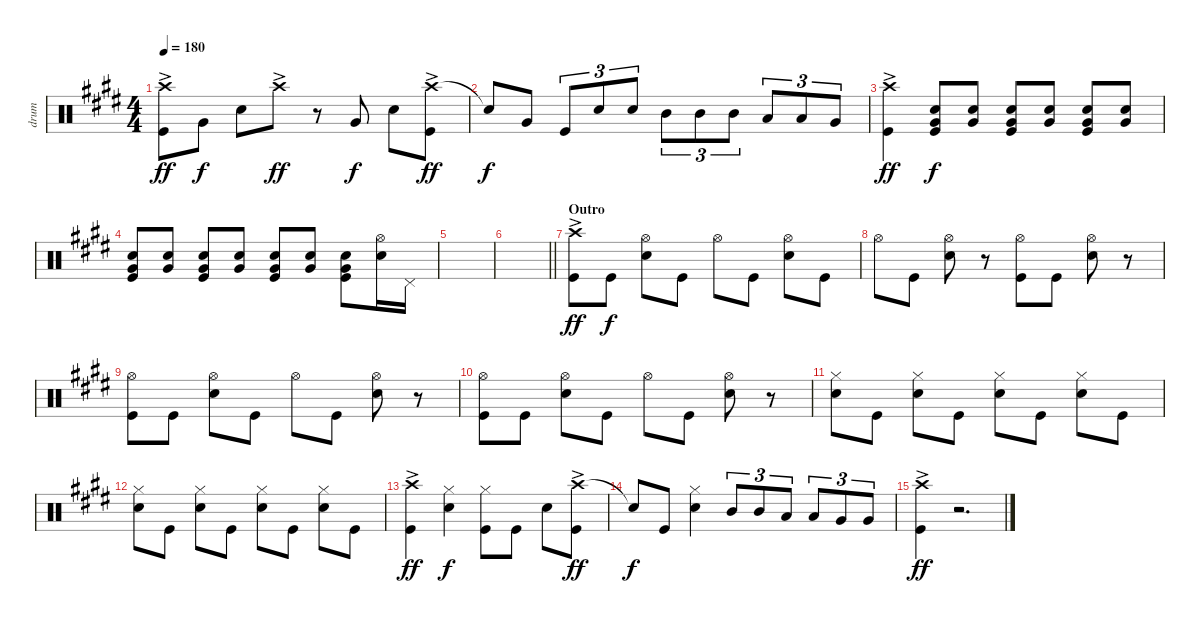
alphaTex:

\track ("drum" "drum") {instrument percussion}
\staff {score}
\articulation defaults
\ts (4 4)
\tempo 180
\clef neutral
\ks e
("Crash high (hit)"{ac} "Kick (hit)").8{dy ff} "Very Low Tom (hit)".8{dy f} "Snare (hit) 2".8 "Crash high (hit)"{ac}.8{dy ff} r.8 "Very Low Tom (hit)".8{dy f} "Snare (hit) 2".8 ("Crash high (hit)"{ac} "Kick (hit)").8{dy ff} |
"Snare (hit)"{t}.8{dy f} "Very Low Tom (hit)".8 "Kick (hit)".8{tu (3 2)} "Snare (hit) 2".8{tu (3 2)} "Snare (hit) 2".8{tu (3 2)} "Mid Tom (hit)".8{tu (3 2)} "Mid Tom (hit)".8{tu (3 2)} "Mid Tom (hit)".8{tu (3 2)} "Low Tom (hit)".8{tu (3 2)} "Low Tom (hit)".8{tu (3 2)} "Very Low Tom (hit)".8{tu (3 2)} |
("Crash high (hit)"{ac} "Kick (hit)").4{dy ff} ("Snare (hit) 2" "Very Low Tom (hit)" "Kick (hit)").8{dy f volume 8} ("Snare (hit) 2" "Very Low Tom (hit)").8{volume 15} ("Snare (hit) 2" "Very Low Tom (hit)" "Kick (hit)").8 ("Snare (hit) 2" "Very Low Tom (hit)").8 ("Snare (hit) 2" "Very Low Tom (hit)" "Kick (hit)").8 ("Snare (hit) 2" "Very Low Tom (hit)").8 |
("Snare (hit) 2" "Very Low Tom (hit)" "Kick (hit)").8 ("Snare (hit) 2" "Very Low Tom (hit)").8 ("Snare (hit) 2" "Very Low Tom (hit)" "Kick (hit)").8 ("Snare (hit) 2" "Very Low Tom (hit)").8 ("Snare (hit) 2" "Very Low Tom (hit)" "Kick (hit)").8 ("Snare (hit) 2" "Very Low Tom (hit)").8 ("Snare (hit) 2" "Very Low Tom (hit)" "Kick (hit)").8 ("Hi-Hat (open)" "Snare (hit) 2").16 "Pedal Hi-Hat (hit)".16 |
|
\barLineRight lightlight
|
\section ("" "Outro")
("Crash high (hit)"{ac} "Kick (hit)").8{dy ff} "Kick (hit)".8{dy f} ("Hi-Hat (open)" "Snare (hit) 2").8 "Kick (hit)".8 "Hi-Hat (open)".8 "Kick (hit)".8 ("Hi-Hat (open)" "Snare (hit) 2").8 "Kick (hit)".8 |
"Hi-Hat (open)".8 "Kick (hit)".8 ("Hi-Hat (open)" "Snare (hit) 2").8 r.8 ("Hi-Hat (open)" "Kick (hit)").8 "Kick (hit)".8 ("Hi-Hat (open)" "Snare (hit) 2").8 r.8 |
("Hi-Hat (open)" "Kick (hit)").8 "Kick (hit)".8 ("Hi-Hat (open)" "Snare (hit) 2").8 "Kick (hit)".8 "Hi-Hat (open)".8 "Kick (hit)".8 ("Hi-Hat (open)" "Snare (hit) 2").8 r.8 |
("Hi-Hat (open)" "Kick (hit)").8 "Kick (hit)".8 ("Hi-Hat (open)" "Snare (hit) 2").8 "Kick (hit)".8 "Hi-Hat (open)".8 "Kick (hit)".8 ("Hi-Hat (open)" "Snare (hit) 2").8 r.8 |
("Hi-Hat (closed)" "Snare (hit) 2").8 "Kick (hit)".8 ("Hi-Hat (closed)" "Snare (hit) 2").8 "Kick (hit)".8 ("Hi-Hat (closed)" "Snare (hit) 2").8 "Kick (hit)".8 ("Hi-Hat (closed)" "Snare (hit) 2").8 "Kick (hit)".8 |
("Hi-Hat (closed)" "Snare (hit) 2").8 "Kick (hit)".8 ("Hi-Hat (closed)" "Snare (hit) 2").8 "Kick (hit)".8 ("Hi-Hat (closed)" "Snare (hit) 2").8 "Kick (hit)".8 ("Hi-Hat (closed)" "Snare (hit) 2").8 "Kick (hit)".8 |
("Crash high (hit)"{ac} "Kick (hit)").4{dy ff} ("Hi-Hat (closed)" "Snare (hit) 2").4{dy f} ("Hi-Hat (closed)" "Kick (hit)").8 "Kick (hit)".8 "Snare (hit) 2".8 ("Crash high (hit)"{ac} "Kick (hit)").8{dy ff} |
"Snare (hit)"{t}.8{dy f} "Kick (hit)".8 ("Hi-Hat (closed)" "Snare (hit) 2").4 "Mid Tom (hit)".8{tu (3 2)} "Mid Tom (hit)".8{tu (3 2)} "Low Tom (hit)".8{tu (3 2)} "Low Tom (hit)".8{tu (3 2)} "Very Low Tom (hit)".8{tu (3 2)} "Very Low Tom (hit)".8{tu (3 2)} |
("Crash high (hit)"{ac} "Kick (hit)").4{dy ff} r.2{d}
